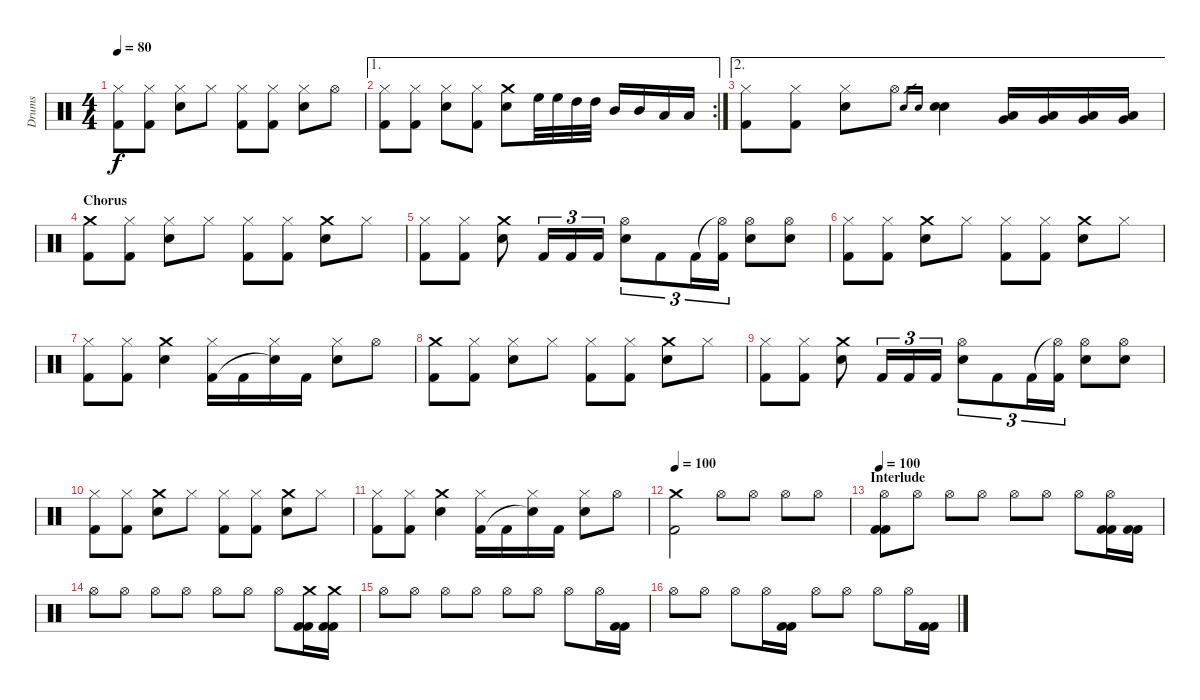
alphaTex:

\track ("Drums" "Drums") {instrument percussion}
\staff {score}
\articulation defaults
\ts (4 4)
\tempo 80
\clef neutral
\ks c
("Hi-Hat (closed)" "Kick (hit) 2").8{dy f} ("Hi-Hat (closed)" "Kick (hit) 2").8 ("Hi-Hat (closed)" "Snare (hit) 2").8 "Hi-Hat (closed)".8 ("Hi-Hat (closed)" "Kick (hit) 2").8 ("Hi-Hat (closed)" "Kick (hit) 2").8 ("Hi-Hat (closed)" "Snare (hit) 2").8 "Hi-Hat (open)".8 |
\ae 1
\rc 2
("Hi-Hat (closed)" "Kick (hit) 2").8 ("Hi-Hat (closed)" "Kick (hit) 2").8 ("Hi-Hat (closed)" "Snare (hit) 2").8 ("Hi-Hat (closed)" "Kick (hit) 2").8 ("Crash medium (hit)" "Snare (hit) 2").8 "High Floor Tom (hit)".32 "High Floor Tom (hit)".32 "High Tom (hit)".32 "High Tom (hit)".32 "Mid Tom (hit)".16 "Mid Tom (hit)".16 "Low Tom (hit)".16 "Low Tom (hit)".16 |
\ae 2
("Hi-Hat (closed)" "Kick (hit) 2").8 ("Hi-Hat (closed)" "Kick (hit) 2").8 ("Hi-Hat (closed)" "Snare (hit) 2").8 "Hi-Hat (open)".8 "Snare (hit) 2".16{gr} "Snare (hit) 2".16{gr} ("Snare (hit) 2" "Snare (hit) 2").4 ("Low Tom (hit)" "Very Low Tom (hit)").16 ("Low Tom (hit)" "Very Low Tom (hit)").16 ("Low Tom (hit)" "Very Low Tom (hit)").16 ("Low Tom (hit)" "Very Low Tom (hit)").16 |
\section ("" "Chorus")
("Crash medium (hit)" "Kick (hit) 2").8 ("Hi-Hat (closed)" "Kick (hit) 2").8 ("Hi-Hat (closed)" "Snare (hit) 2").8 "Hi-Hat (closed)".8 ("Hi-Hat (closed)" "Kick (hit) 2").8 ("Hi-Hat (closed)" "Kick (hit) 2").8 ("Crash medium (hit)" "Snare (hit) 2").8 "Hi-Hat (closed)".8 |
("Hi-Hat (closed)" "Kick (hit) 2").8 ("Hi-Hat (closed)" "Kick (hit) 2").8 ("Crash medium (hit)" "Snare (hit) 2").8 "Kick (hit) 2".16{tu (3 2)} "Kick (hit) 2".16{tu (3 2)} "Kick (hit) 2".16{tu (3 2)} ("Hi-Hat (open)" "Snare (hit) 2").8{tu (3 2)} "Kick (hit) 2".8{tu (3 2)} "Kick (hit) 2".16{tu (3 2)} ("Hi-Hat (open)"{t} "Kick (hit) 2").16{tu (3 2)} ("Hi-Hat (open)" "Snare (hit) 2").8 ("Hi-Hat (open)" "Snare (hit) 2").8 |
("Hi-Hat (closed)" "Kick (hit) 2").8 ("Hi-Hat (closed)" "Kick (hit) 2").8 ("Crash medium (hit)" "Snare (hit) 2").8 "Hi-Hat (closed)".8 ("Hi-Hat (closed)" "Kick (hit) 2").8 ("Hi-Hat (closed)" "Kick (hit) 2").8 ("Crash medium (hit)" "Snare (hit) 2").8 "Hi-Hat (closed)".8 |
("Hi-Hat (closed)" "Kick (hit) 2").8 ("Hi-Hat (closed)" "Kick (hit) 2").8 ("Crash medium (hit)" "Snare (hit) 2").4 ("Hi-Hat (closed)" "Kick (hit) 2").16 "Kick (hit) 2".16 ("Hi-Hat (closed)" "Snare (hit)"{t}).16 "Kick (hit) 2".16 ("Hi-Hat (closed)" "Snare (hit) 2").8 "Hi-Hat (open)".8 |
("Crash medium (hit)" "Kick (hit) 2").8 ("Hi-Hat (closed)" "Kick (hit) 2").8 ("Hi-Hat (closed)" "Snare (hit) 2").8 "Hi-Hat (closed)".8 ("Hi-Hat (closed)" "Kick (hit) 2").8 ("Hi-Hat (closed)" "Kick (hit) 2").8 ("Crash medium (hit)" "Snare (hit) 2").8 "Hi-Hat (closed)".8 |
("Hi-Hat (closed)" "Kick (hit) 2").8 ("Hi-Hat (closed)" "Kick (hit) 2").8 ("Crash medium (hit)" "Snare (hit) 2").8 "Kick (hit) 2".16{tu (3 2)} "Kick (hit) 2".16{tu (3 2)} "Kick (hit) 2".16{tu (3 2)} ("Hi-Hat (open)" "Snare (hit) 2").8{tu (3 2)} "Kick (hit) 2".8{tu (3 2)} "Kick (hit) 2".16{tu (3 2)} ("Hi-Hat (open)"{t} "Kick (hit) 2").16{tu (3 2)} ("Hi-Hat (open)" "Snare (hit) 2").8 ("Hi-Hat (open)" "Snare (hit) 2").8 |
("Hi-Hat (closed)" "Kick (hit) 2").8 ("Hi-Hat (closed)" "Kick (hit) 2").8 ("Crash medium (hit)" "Snare (hit) 2").8 "Hi-Hat (closed)".8 ("Hi-Hat (closed)" "Kick (hit) 2").8 ("Hi-Hat (closed)" "Kick (hit) 2").8 ("Crash medium (hit)" "Snare (hit) 2").8 "Hi-Hat (closed)".8 |
("Hi-Hat (closed)" "Kick (hit) 2").8 ("Hi-Hat (closed)" "Kick (hit) 2").8 ("Crash medium (hit)" "Snare (hit) 2").4 ("Hi-Hat (closed)" "Kick (hit) 2").16 "Kick (hit) 2".16 ("Hi-Hat (closed)" "Snare (hit)"{t}).16 "Kick (hit) 2".16 ("Hi-Hat (closed)" "Snare (hit) 2").8 "Hi-Hat (open)".8 |
\tempo 100
("Crash medium (hit)" "Kick (hit) 2").2 "Hi-Hat (open)".8 "Hi-Hat (open)".8 "Hi-Hat (open)".8 "Hi-Hat (open)".8 |
\section ("" "Interlude")
\tempo 100
("Hi-Hat (open)" "Kick (hit) 2" "Kick (hit) 2").8 "Hi-Hat (open)".8 "Hi-Hat (open)".8 "Hi-Hat (open)".8 "Hi-Hat (open)".8 "Hi-Hat (open)".8 "Hi-Hat (open)".8 ("Hi-Hat (open)" "Kick (hit) 2" "Kick (hit) 2").16 ("Kick (hit) 2" "Kick (hit) 2").16 |
"Hi-Hat (open)".8 "Hi-Hat (open)".8 "Hi-Hat (open)".8 "Hi-Hat (open)".8 "Hi-Hat (open)".8 "Hi-Hat (open)".8 "Hi-Hat (open)".8 ("Crash medium (hit)" "Kick (hit) 2" "Kick (hit) 2").16 ("Crash medium (hit)" "Kick (hit) 2" "Kick (hit) 2").16 |
"Hi-Hat (open)".8 "Hi-Hat (open)".8 "Hi-Hat (open)".8 "Hi-Hat (open)".8 "Hi-Hat (open)".8 "Hi-Hat (open)".8 "Hi-Hat (open)".8 "Hi-Hat (open)".16 ("Kick (hit) 2" "Kick (hit) 2").16 |
"Hi-Hat (open)".8 "Hi-Hat (open)".8 "Hi-Hat (open)".8 "Hi-Hat (open)".16 ("Kick (hit) 2" "Kick (hit) 2").16 "Hi-Hat (open)".8 "Hi-Hat (open)".8 "Hi-Hat (open)".8 "Hi-Hat (open)".16 ("Kick (hit) 2" "Kick (hit) 2").16
